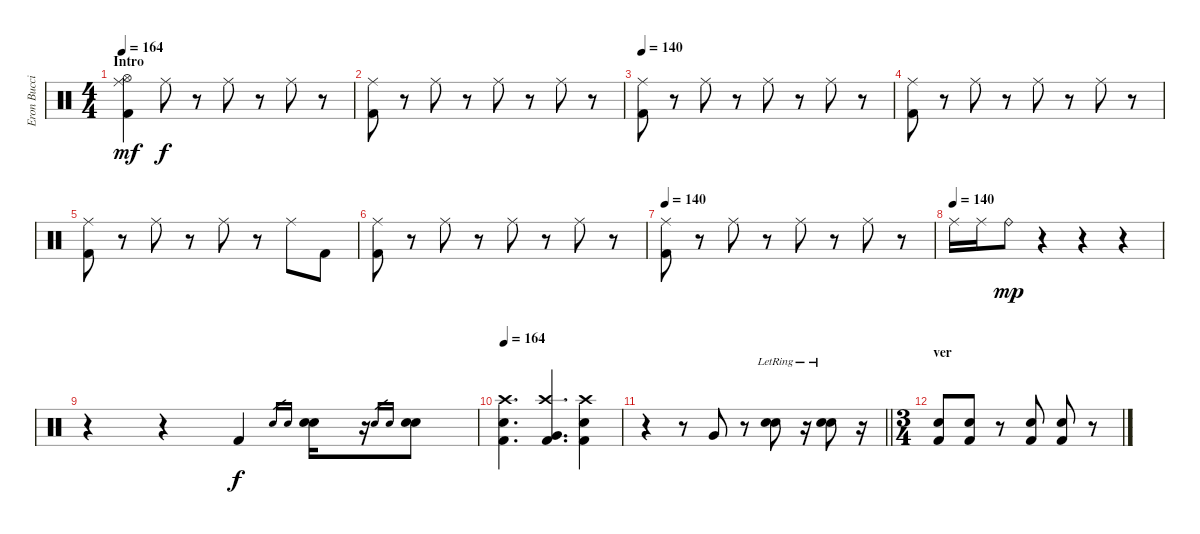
\track ("Eron Bucciarelli (Drums)" "Eron Bucci") {instrument percussion}
\staff {score}
\articulation defaults
\ts (4 4)
\section ("" "Intro")
\tempo 164
\tempo 140
\tempo 164
\clef neutral
\ks c
("Hi-Hat (open)" "Ride (middle)" "Kick (hit) 2").4{dy mf} "Ride (middle)".8{dy f} r.8 "Ride (middle)".8 r.8 "Ride (middle)".8 r.8 |
("Ride (middle)" "Kick (hit) 2").8 r.8 "Ride (middle)".8 r.8 "Ride (middle)".8 r.8 "Ride (middle)".8 r.8 |
\tempo 140
("Ride (middle)" "Kick (hit) 2").8 r.8 "Ride (middle)".8 r.8 "Ride (middle)".8 r.8 "Ride (middle)".8 r.8 |
("Ride (middle)" "Kick (hit) 2").8 r.8 "Ride (middle)".8 r.8 "Ride (middle)".8 r.8 "Ride (middle)".8 r.8 |
("Ride (middle)" "Kick (hit) 2").8 r.8 "Ride (middle)".8 r.8 "Ride (middle)".8 r.8 "Ride (middle)".8 "Kick (hit) 2".8 |
("Ride (middle)" "Kick (hit) 2").8 r.8 "Ride (middle)".8 r.8 "Ride (middle)".8 r.8 "Ride (middle)".8 r.8 |
\tempo 140
("Ride (middle)" "Kick (hit) 2").8 r.8 "Ride (middle)".8 r.8 "Ride (middle)".8 r.8 "Ride (middle)".8 r.8 |
\tempo (140)
"Ride (middle)".16 "Ride (middle)".16 "Ride (bell)".8{dy mp} r.4 r.4 r.4 |
r.4 r.4 "Kick (hit) 2".4{dy f} "Electric Snare (hit)".16{gr} "Electric Snare (hit)".16{gr} ("Electric Snare (hit)" "Electric Snare (hit)").16 r.16 "Electric Snare (hit)".16{gr} "Electric Snare (hit)".16{gr} ("Electric Snare (hit)" "Electric Snare (hit)").8 |
\tempo 164
("Crash high (hit)" "Electric Snare (hit)" "Kick (hit) 2").4{d} ("Crash high (hit)" "Very Low Tom (hit)" "Kick (hit) 2").4{d} ("Crash high (hit)" "Electric Snare (hit)" "Kick (hit) 2").4 |
\barLineRight lightlight
r.4 r.8 "Very Low Tom (hit)".8 r.8 ("Electric Snare (hit)"{lr} "Electric Snare (hit)"{lr}).8 r.16 ("Electric Snare (hit)"{lr} "Electric Snare (hit)"{lr}).8 r.16 |
\ts (3 4)
\section ("" "ver")
("Electric Snare (hit)" "Kick (hit) 2").8 ("Electric Snare (hit)" "Kick (hit) 2").8 r.8 ("Electric Snare (hit)" "Kick (hit) 2").8 ("Electric Snare (hit)" "Kick (hit) 2").8 r.8
